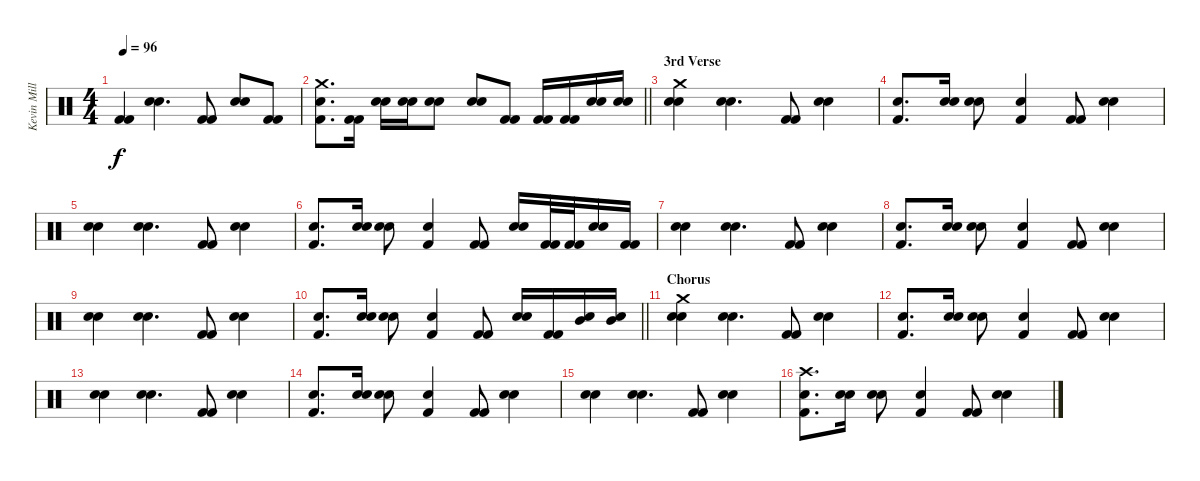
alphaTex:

\track ("Kevin Miller (Drums)" "Kevin Mill") {instrument percussion}
\staff {score}
\articulation defaults
\ts (4 4)
\tempo 96
\clef neutral
\ks c
("Kick (hit) 2" "Kick (hit) 2").4{dy f} ("Electric Snare (hit)" "Electric Snare (hit)").4{d} ("Kick (hit) 2" "Kick (hit) 2").8 ("Electric Snare (hit)" "Electric Snare (hit)").8 ("Kick (hit) 2" "Kick (hit) 2").8 |
\barLineRight lightlight
("Electric Snare (hit)" "Kick (hit) 2" "Crash medium (hit)").8{d} ("Kick (hit) 2" "Kick (hit) 2").16 ("Electric Snare (hit)" "Electric Snare (hit)").16 ("Electric Snare (hit)" "Electric Snare (hit)").16 ("Electric Snare (hit)" "Electric Snare (hit)").8 ("Electric Snare (hit)" "Electric Snare (hit)").8 ("Kick (hit) 2" "Kick (hit) 2").8 ("Kick (hit) 2" "Kick (hit) 2").16 ("Kick (hit) 2" "Kick (hit) 2").16 ("Electric Snare (hit)" "Electric Snare (hit)").16 ("Electric Snare (hit)" "Electric Snare (hit)").16 |
\section ("" "3rd Verse")
("Electric Snare (hit)" "Electric Snare (hit)" "Crash medium (hit)").4 ("Electric Snare (hit)" "Electric Snare (hit)").4{d} ("Kick (hit) 2" "Kick (hit) 2").8 ("Electric Snare (hit)" "Electric Snare (hit)").4 |
("Electric Snare (hit)" "Kick (hit) 2").8{d} ("Electric Snare (hit)" "Electric Snare (hit)").16 ("Electric Snare (hit)" "Electric Snare (hit)").8 ("Electric Snare (hit)" "Kick (hit) 2").4 ("Kick (hit) 2" "Kick (hit) 2").8 ("Electric Snare (hit)" "Electric Snare (hit)").4 |
("Electric Snare (hit)" "Electric Snare (hit)").4 ("Electric Snare (hit)" "Electric Snare (hit)").4{d} ("Kick (hit) 2" "Kick (hit) 2").8 ("Electric Snare (hit)" "Electric Snare (hit)").4 |
("Electric Snare (hit)" "Kick (hit) 2").8{d} ("Electric Snare (hit)" "Electric Snare (hit)").16 ("Electric Snare (hit)" "Electric Snare (hit)").8 ("Electric Snare (hit)" "Kick (hit) 2").4 ("Kick (hit) 2" "Kick (hit) 2").8 ("Electric Snare (hit)" "Electric Snare (hit)").16 ("Kick (hit) 2" "Kick (hit) 2").32 ("Kick (hit) 2" "Kick (hit) 2").32 ("Electric Snare (hit)" "Electric Snare (hit)").16 ("Kick (hit) 2" "Kick (hit) 2").16 |
("Electric Snare (hit)" "Electric Snare (hit)").4 ("Electric Snare (hit)" "Electric Snare (hit)").4{d} ("Kick (hit) 2" "Kick (hit) 2").8 ("Electric Snare (hit)" "Electric Snare (hit)").4 |
("Electric Snare (hit)" "Kick (hit) 2").8{d} ("Electric Snare (hit)" "Electric Snare (hit)").16 ("Electric Snare (hit)" "Electric Snare (hit)").8 ("Electric Snare (hit)" "Kick (hit) 2").4 ("Kick (hit) 2" "Kick (hit) 2").8 ("Electric Snare (hit)" "Electric Snare (hit)").4 |
("Electric Snare (hit)" "Electric Snare (hit)").4 ("Electric Snare (hit)" "Electric Snare (hit)").4{d} ("Kick (hit) 2" "Kick (hit) 2").8 ("Electric Snare (hit)" "Electric Snare (hit)").4 |
\barLineRight lightlight
("Electric Snare (hit)" "Kick (hit) 2").8{d} ("Electric Snare (hit)" "Electric Snare (hit)").16 ("Electric Snare (hit)" "Electric Snare (hit)").8 ("Electric Snare (hit)" "Kick (hit) 2").4 ("Kick (hit) 2" "Kick (hit) 2").8 ("Electric Snare (hit)" "Electric Snare (hit)").16 ("Kick (hit) 2" "Kick (hit) 2").16 ("Electric Snare (hit)" "Mid Tom (hit)").16 ("Electric Snare (hit)" "Mid Tom (hit)").16 |
\section ("" "Chorus")
("Electric Snare (hit)" "Electric Snare (hit)" "Crash medium (hit)").4 ("Electric Snare (hit)" "Electric Snare (hit)").4{d} ("Kick (hit) 2" "Kick (hit) 2").8 ("Electric Snare (hit)" "Electric Snare (hit)").4 |
("Electric Snare (hit)" "Kick (hit) 2").8{d} ("Electric Snare (hit)" "Electric Snare (hit)").16 ("Electric Snare (hit)" "Electric Snare (hit)").8 ("Electric Snare (hit)" "Kick (hit) 2").4 ("Kick (hit) 2" "Kick (hit) 2").8 ("Electric Snare (hit)" "Electric Snare (hit)").4 |
("Electric Snare (hit)" "Electric Snare (hit)").4 ("Electric Snare (hit)" "Electric Snare (hit)").4{d} ("Kick (hit) 2" "Kick (hit) 2").8 ("Electric Snare (hit)" "Electric Snare (hit)").4 |
("Electric Snare (hit)" "Kick (hit) 2").8{d} ("Electric Snare (hit)" "Electric Snare (hit)").16 ("Electric Snare (hit)" "Electric Snare (hit)").8 ("Electric Snare (hit)" "Kick (hit) 2").4 ("Kick (hit) 2" "Kick (hit) 2").8 ("Electric Snare (hit)" "Electric Snare (hit)").4 |
("Electric Snare (hit)" "Electric Snare (hit)").4 ("Electric Snare (hit)" "Electric Snare (hit)").4{d} ("Kick (hit) 2" "Kick (hit) 2").8 ("Electric Snare (hit)" "Electric Snare (hit)").4 |
("Electric Snare (hit)" "Kick (hit) 2" "Crash high (hit)").8{d} ("Electric Snare (hit)" "Electric Snare (hit)").16 ("Electric Snare (hit)" "Electric Snare (hit)").8 ("Electric Snare (hit)" "Kick (hit) 2").4 ("Kick (hit) 2" "Kick (hit) 2").8 ("Electric Snare (hit)" "Electric Snare (hit)").4
